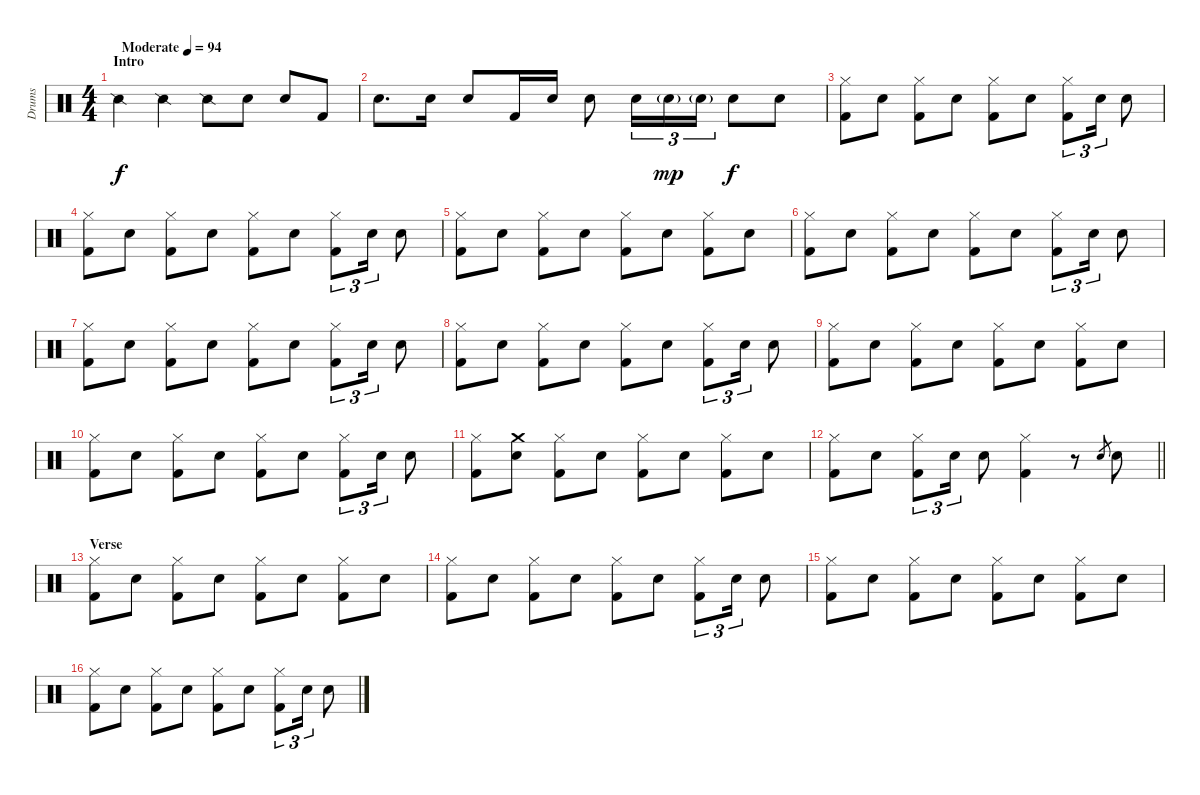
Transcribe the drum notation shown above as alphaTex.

\track ("Drums" "Drums") {instrument percussion}
\staff {score}
\articulation defaults
\ts (4 4)
\section ("" "Intro")
\tempo (94 "Moderate")
\clef neutral
\ks c "Snare (side stick) 2".4{dy f} "Snare (side stick) 2".4 "Snare (side stick) 2".8 "Electric Snare (hit)".8 "Electric Snare (hit)".8 "Kick (hit) 2".8
|
"Electric Snare (hit)".8{d} "Electric Snare (hit)".16 "Electric Snare (hit)".8 "Kick (hit) 2".16 "Electric Snare (hit)".16 "Electric Snare (hit)".8 "Electric Snare (hit)".16{tu (3 2)} "Electric Snare (hit)"{g}.16{tu (3 2) dy mp} "Electric Snare (hit)"{g}.16{tu (3 2)} "Electric Snare (hit)".8{dy f} "Electric Snare (hit)".8 |
("Hi-Hat (closed)" "Kick (hit) 2").8 "Electric Snare (hit)".8 ("Hi-Hat (closed)" "Kick (hit) 2").8 "Electric Snare (hit)".8 ("Hi-Hat (closed)" "Kick (hit) 2").8 "Electric Snare (hit)".8 ("Hi-Hat (closed)" "Kick (hit) 2").8{tu (3 2)} "Electric Snare (hit)".16{tu (3 2)} "Electric Snare (hit)".8 |
("Hi-Hat (closed)" "Kick (hit) 2").8 "Electric Snare (hit)".8 ("Hi-Hat (closed)" "Kick (hit) 2").8 "Electric Snare (hit)".8 ("Hi-Hat (closed)" "Kick (hit) 2").8 "Electric Snare (hit)".8 ("Hi-Hat (closed)" "Kick (hit) 2").8{tu (3 2)} "Electric Snare (hit)".16{tu (3 2)} "Electric Snare (hit)".8 |
("Hi-Hat (closed)" "Kick (hit) 2").8 "Electric Snare (hit)".8 ("Hi-Hat (closed)" "Kick (hit) 2").8 "Electric Snare (hit)".8 ("Hi-Hat (closed)" "Kick (hit) 2").8 "Electric Snare (hit)".8 ("Hi-Hat (closed)" "Kick (hit) 2").8 "Electric Snare (hit)".8 |
("Hi-Hat (closed)" "Kick (hit) 2").8 "Electric Snare (hit)".8 ("Hi-Hat (closed)" "Kick (hit) 2").8 "Electric Snare (hit)".8 ("Hi-Hat (closed)" "Kick (hit) 2").8 "Electric Snare (hit)".8 ("Hi-Hat (closed)" "Kick (hit) 2").8{tu (3 2)} "Electric Snare (hit)".16{tu (3 2)} "Electric Snare (hit)".8 |
("Hi-Hat (closed)" "Kick (hit) 2").8 "Electric Snare (hit)".8 ("Hi-Hat (closed)" "Kick (hit) 2").8 "Electric Snare (hit)".8 ("Hi-Hat (closed)" "Kick (hit) 2").8 "Electric Snare (hit)".8 ("Hi-Hat (closed)" "Kick (hit) 2").8{tu (3 2)} "Electric Snare (hit)".16{tu (3 2)} "Electric Snare (hit)".8 |
("Hi-Hat (closed)" "Kick (hit) 2").8 "Electric Snare (hit)".8 ("Hi-Hat (closed)" "Kick (hit) 2").8 "Electric Snare (hit)".8 ("Hi-Hat (closed)" "Kick (hit) 2").8 "Electric Snare (hit)".8 ("Hi-Hat (closed)" "Kick (hit) 2").8{tu (3 2)} "Electric Snare (hit)".16{tu (3 2)} "Electric Snare (hit)".8 |
("Hi-Hat (closed)" "Kick (hit) 2").8 "Electric Snare (hit)".8 ("Hi-Hat (closed)" "Kick (hit) 2").8 "Electric Snare (hit)".8 ("Hi-Hat (closed)" "Kick (hit) 2").8 "Electric Snare (hit)".8 ("Hi-Hat (closed)" "Kick (hit) 2").8 "Electric Snare (hit)".8 |
("Hi-Hat (closed)" "Kick (hit) 2").8 "Electric Snare (hit)".8 ("Hi-Hat (closed)" "Kick (hit) 2").8 "Electric Snare (hit)".8 ("Hi-Hat (closed)" "Kick (hit) 2").8 "Electric Snare (hit)".8 ("Hi-Hat (closed)" "Kick (hit) 2").8{tu (3 2)} "Electric Snare (hit)".16{tu (3 2)} "Electric Snare (hit)".8 |
("Hi-Hat (closed)" "Kick (hit) 2").8 ("Crash medium (hit)" "Electric Snare (hit)").8 ("Hi-Hat (closed)" "Kick (hit) 2").8 "Electric Snare (hit)".8 ("Hi-Hat (closed)" "Kick (hit) 2").8 "Electric Snare (hit)".8 ("Hi-Hat (closed)" "Kick (hit) 2").8 "Electric Snare (hit)".8 |
\barLineRight lightlight
("Hi-Hat (closed)" "Kick (hit) 2").8 "Electric Snare (hit)".8 ("Hi-Hat (closed)" "Kick (hit) 2").8{tu (3 2)} "Electric Snare (hit)".16{tu (3 2)} "Electric Snare (hit)".8 ("Hi-Hat (closed)" "Kick (hit) 2").4 r.8 "Electric Snare (hit)".8{gr} "Electric Snare (hit)".8 |
\section ("" "Verse")
("Hi-Hat (closed)" "Kick (hit) 2").8 "Electric Snare (hit)".8 ("Hi-Hat (closed)" "Kick (hit) 2").8 "Electric Snare (hit)".8 ("Hi-Hat (closed)" "Kick (hit) 2").8 "Electric Snare (hit)".8 ("Hi-Hat (closed)" "Kick (hit) 2").8 "Electric Snare (hit)".8 |
("Hi-Hat (closed)" "Kick (hit) 2").8 "Electric Snare (hit)".8 ("Hi-Hat (closed)" "Kick (hit) 2").8 "Electric Snare (hit)".8 ("Hi-Hat (closed)" "Kick (hit) 2").8 "Electric Snare (hit)".8 ("Hi-Hat (closed)" "Kick (hit) 2").8{tu (3 2)} "Electric Snare (hit)".16{tu (3 2)} "Electric Snare (hit)".8 |
("Hi-Hat (closed)" "Kick (hit) 2").8 "Electric Snare (hit)".8 ("Hi-Hat (closed)" "Kick (hit) 2").8 "Electric Snare (hit)".8 ("Hi-Hat (closed)" "Kick (hit) 2").8 "Electric Snare (hit)".8 ("Hi-Hat (closed)" "Kick (hit) 2").8 "Electric Snare (hit)".8 |
("Hi-Hat (closed)" "Kick (hit) 2").8 "Electric Snare (hit)".8 ("Hi-Hat (closed)" "Kick (hit) 2").8 "Electric Snare (hit)".8 ("Hi-Hat (closed)" "Kick (hit) 2").8 "Electric Snare (hit)".8 ("Hi-Hat (closed)" "Kick (hit) 2").8{tu (3 2)} "Electric Snare (hit)".16{tu (3 2)} "Electric Snare (hit)".8
